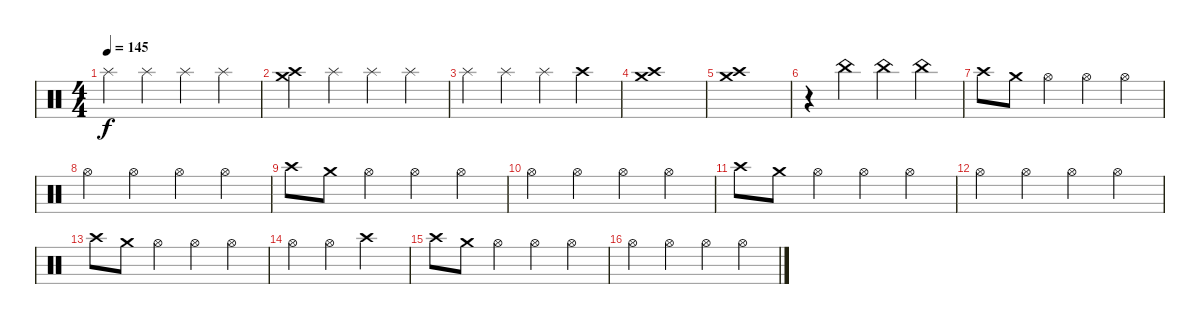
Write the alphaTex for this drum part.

\track "" {instrument percussion}
\staff {score}
\articulation defaults
\ts (4 4)
\tempo 145
\clef neutral
\ks c "Splash (hit)".4{dy f} "Splash (hit)".4 "Splash (hit)".4 "Splash (hit)".4
|
("Crash medium (hit)" "Crash high (hit)").4 "Splash (hit)".4 "Splash (hit)".4 "Splash (hit)".4 |
"Splash (hit)".4 "Splash (hit)".4 "Splash (hit)".4 "Crash high (hit)".4 |
("Crash medium (hit)" "Crash high (hit)").1 |
("Crash medium (hit)" "Crash high (hit)").1 |
r.4 "China (hit)".4 "China (hit)".4 "China (hit)".4 |
"Crash high (hit)".8 "Crash medium (hit)".8 "Hi-Hat (open)".4 "Hi-Hat (open)".4 "Hi-Hat (open)".4 |
"Hi-Hat (open)".4 "Hi-Hat (open)".4 "Hi-Hat (open)".4 "Hi-Hat (open)".4 |
"Crash high (hit)".8 "Crash medium (hit)".8 "Hi-Hat (open)".4 "Hi-Hat (open)".4 "Hi-Hat (open)".4 |
"Hi-Hat (open)".4 "Hi-Hat (open)".4 "Hi-Hat (open)".4 "Hi-Hat (open)".4 |
"Crash high (hit)".8 "Crash medium (hit)".8 "Hi-Hat (open)".4 "Hi-Hat (open)".4 "Hi-Hat (open)".4 |
"Hi-Hat (open)".4 "Hi-Hat (open)".4 "Hi-Hat (open)".4 "Hi-Hat (open)".4 |
"Crash high (hit)".8 "Crash medium (hit)".8 "Hi-Hat (open)".4 "Hi-Hat (open)".4 "Hi-Hat (open)".4 |
"Hi-Hat (open)".4 "Hi-Hat (open)".4 "Crash high (hit)".2 |
"Crash high (hit)".8 "Crash medium (hit)".8 "Hi-Hat (open)".4 "Hi-Hat (open)".4 "Hi-Hat (open)".4 |
"Hi-Hat (open)".4 "Hi-Hat (open)".4 "Hi-Hat (open)".4 "Hi-Hat (open)".4
